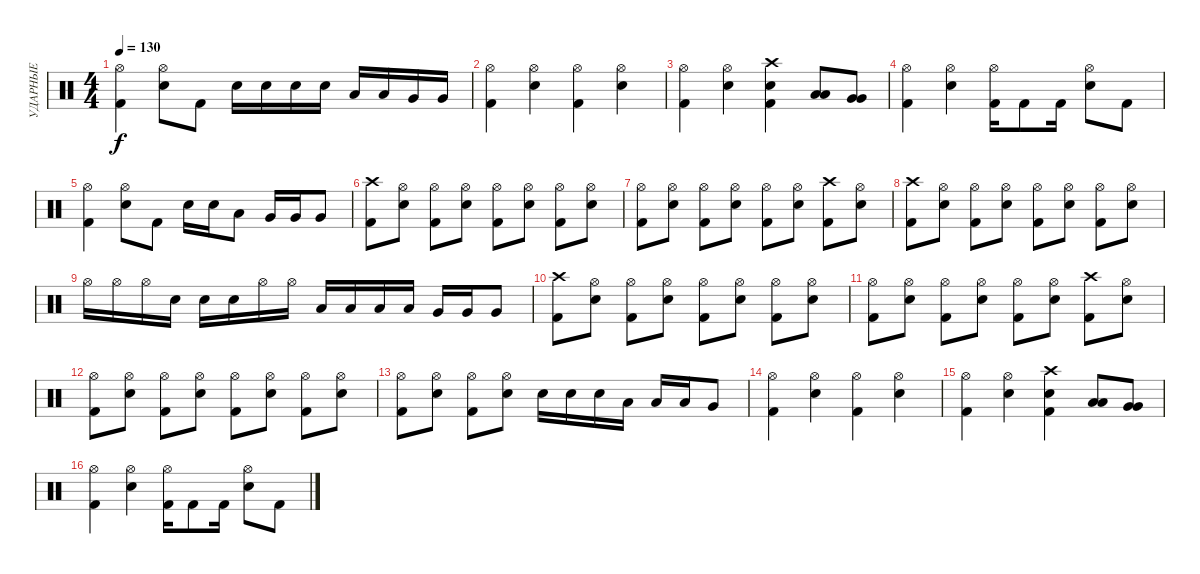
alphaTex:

\track ("УДАРНЫЕ" "УДАРНЫЕ") {instrument percussion}
\staff {score}
\articulation defaults
\ts (4 4)
\tempo 130
\clef neutral
\ks c
("Hi-Hat (open)" "Kick (hit) 2").4{dy f} ("Hi-Hat (open)" "Snare (hit) 2").8 "Kick (hit) 2".8 "Snare (hit) 2".16 "Snare (hit) 2".16 "Snare (hit) 2".16 "Snare (hit) 2".16 "Low Tom (hit)".16 "Low Tom (hit)".16 "Very Low Tom (hit)".16 "Very Low Tom (hit)".16 |
("Kick (hit) 2" "Hi-Hat (open)").4 ("Snare (hit) 2" "Hi-Hat (open)").4 ("Kick (hit) 2" "Hi-Hat (open)").4 ("Snare (hit) 2" "Hi-Hat (open)").4 |
("Kick (hit) 2" "Hi-Hat (open)").4 ("Snare (hit) 2" "Hi-Hat (open)").4 ("Snare (hit) 2" "Kick (hit) 2" "Crash high (hit)").4 ("Low Tom (hit)" "Low Tom (hit)").8 ("Very Low Tom (hit)" "Very Low Tom (hit)").8 |
("Hi-Hat (open)" "Kick (hit) 2").4 ("Hi-Hat (open)" "Snare (hit) 2").4 ("Hi-Hat (open)" "Kick (hit) 2").16 "Kick (hit) 2".8 "Kick (hit) 2".16 ("Hi-Hat (open)" "Snare (hit) 2").8 "Kick (hit) 2".8 |
("Hi-Hat (open)" "Kick (hit) 2").4 ("Hi-Hat (open)" "Snare (hit) 2").8 "Kick (hit) 2".8 "Snare (hit) 2".16 "Snare (hit) 2".16 "Low Tom (hit)".8 "Very Low Tom (hit)".16 "Very Low Tom (hit)".16 "Very Low Tom (hit)".8 |
("Crash high (hit)" "Kick (hit) 2").8 ("Hi-Hat (open)" "Snare (hit) 2").8 ("Hi-Hat (open)" "Kick (hit) 2").8 ("Hi-Hat (open)" "Snare (hit) 2").8 ("Hi-Hat (open)" "Kick (hit) 2").8 ("Hi-Hat (open)" "Snare (hit) 2").8 ("Hi-Hat (open)" "Kick (hit) 2").8 ("Hi-Hat (open)" "Snare (hit) 2").8 |
("Hi-Hat (open)" "Kick (hit) 2").8 ("Hi-Hat (open)" "Snare (hit) 2").8 ("Hi-Hat (open)" "Kick (hit) 2").8 ("Hi-Hat (open)" "Snare (hit) 2").8 ("Hi-Hat (open)" "Kick (hit) 2").8 ("Hi-Hat (open)" "Snare (hit) 2").8 ("Crash high (hit)" "Kick (hit) 2").8 ("Hi-Hat (open)" "Snare (hit) 2").8 |
("Crash high (hit)" "Kick (hit) 2").8 ("Hi-Hat (open)" "Snare (hit) 2").8 ("Hi-Hat (open)" "Kick (hit) 2").8 ("Hi-Hat (open)" "Snare (hit) 2").8 ("Hi-Hat (open)" "Kick (hit) 2").8 ("Hi-Hat (open)" "Snare (hit) 2").8 ("Hi-Hat (open)" "Kick (hit) 2").8 ("Hi-Hat (open)" "Snare (hit) 2").8 |
"Hi-Hat (open)".16 "Hi-Hat (open)".16 "Hi-Hat (open)".16 "Snare (hit) 2".16 "Snare (hit) 2".16 "Snare (hit) 2".16 "Hi-Hat (open)".16 "Hi-Hat (open)".16 "Low Tom (hit)".16 "Low Tom (hit)".16 "Low Tom (hit)".16 "Low Tom (hit)".16 "Very Low Tom (hit)".16 "Very Low Tom (hit)".16 "Very Low Tom (hit)".8 |
("Crash high (hit)" "Kick (hit) 2").8 ("Hi-Hat (open)" "Snare (hit) 2").8 ("Hi-Hat (open)" "Kick (hit) 2").8 ("Hi-Hat (open)" "Snare (hit) 2").8 ("Hi-Hat (open)" "Kick (hit) 2").8 ("Hi-Hat (open)" "Snare (hit) 2").8 ("Hi-Hat (open)" "Kick (hit) 2").8 ("Hi-Hat (open)" "Snare (hit) 2").8 |
("Hi-Hat (open)" "Kick (hit) 2").8 ("Hi-Hat (open)" "Snare (hit) 2").8 ("Hi-Hat (open)" "Kick (hit) 2").8 ("Hi-Hat (open)" "Snare (hit) 2").8 ("Hi-Hat (open)" "Kick (hit) 2").8 ("Hi-Hat (open)" "Snare (hit) 2").8 ("Crash high (hit)" "Kick (hit) 2").8 ("Hi-Hat (open)" "Snare (hit) 2").8 |
("Hi-Hat (open)" "Kick (hit) 2").8 ("Hi-Hat (open)" "Snare (hit) 2").8 ("Hi-Hat (open)" "Kick (hit) 2").8 ("Hi-Hat (open)" "Snare (hit) 2").8 ("Hi-Hat (open)" "Kick (hit) 2").8 ("Hi-Hat (open)" "Snare (hit) 2").8 ("Hi-Hat (open)" "Kick (hit) 2").8 ("Hi-Hat (open)" "Snare (hit) 2").8 |
("Hi-Hat (open)" "Kick (hit) 2").8 ("Hi-Hat (open)" "Snare (hit) 2").8 ("Hi-Hat (open)" "Kick (hit) 2").8 ("Hi-Hat (open)" "Snare (hit) 2").8 "Snare (hit) 2".16 "Snare (hit) 2".16 "Snare (hit) 2".16 "Low Tom (hit)".16 "Low Tom (hit)".16 "Low Tom (hit)".16 "Very Low Tom (hit)".8 |
("Kick (hit) 2" "Hi-Hat (open)").4 ("Snare (hit) 2" "Hi-Hat (open)").4 ("Kick (hit) 2" "Hi-Hat (open)").4 ("Snare (hit) 2" "Hi-Hat (open)").4 |
("Kick (hit) 2" "Hi-Hat (open)").4 ("Snare (hit) 2" "Hi-Hat (open)").4 ("Snare (hit) 2" "Kick (hit) 2" "Crash high (hit)").4 ("Low Tom (hit)" "Low Tom (hit)").8 ("Very Low Tom (hit)" "Very Low Tom (hit)").8 |
("Hi-Hat (open)" "Kick (hit) 2").4 ("Hi-Hat (open)" "Snare (hit) 2").4 ("Hi-Hat (open)" "Kick (hit) 2").16 "Kick (hit) 2".8 "Kick (hit) 2".16 ("Hi-Hat (open)" "Snare (hit) 2").8 "Kick (hit) 2".8
